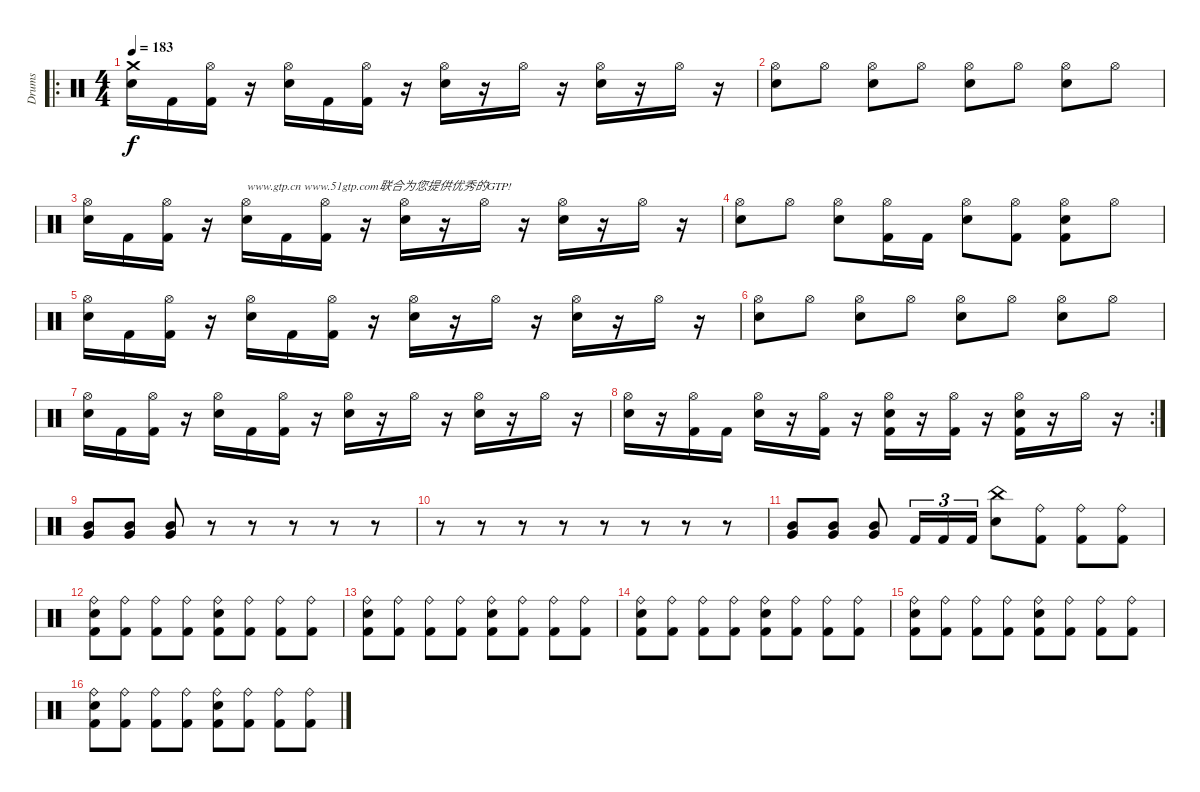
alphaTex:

\track ("Drums" "Drums") {instrument percussion}
\staff {score}
\articulation defaults
\ro
\ts (4 4)
\tempo 183
\clef neutral
\ks c
("Electric Snare (hit)" "Crash medium (hit)").16{dy f} "Kick (hit) 2".16 ("Kick (hit) 2" "Hi-Hat (open)").16 r.16 ("Electric Snare (hit)" "Hi-Hat (open)").16 "Kick (hit) 2".16 ("Kick (hit) 2" "Hi-Hat (open)").16 r.16 ("Electric Snare (hit)" "Hi-Hat (open)").16 r.16 "Hi-Hat (open)".16 r.16 ("Electric Snare (hit)" "Hi-Hat (open)").16 r.16 "Hi-Hat (open)".16 r.16 |
("Electric Snare (hit)" "Hi-Hat (open)").8 "Hi-Hat (open)".8 ("Electric Snare (hit)" "Hi-Hat (open)").8 "Hi-Hat (open)".8 ("Electric Snare (hit)" "Hi-Hat (open)").8 "Hi-Hat (open)".8 ("Electric Snare (hit)" "Hi-Hat (open)").8 "Hi-Hat (open)".8 |
("Electric Snare (hit)" "Hi-Hat (open)").16 "Kick (hit) 2".16 ("Kick (hit) 2" "Hi-Hat (open)").16 r.16 ("Electric Snare (hit)" "Hi-Hat (open)").16{txt "www.gtp.cn www.51gtp.com联合为您提供优秀的GTP!"} "Kick (hit) 2".16 ("Kick (hit) 2" "Hi-Hat (open)").16 r.16 ("Electric Snare (hit)" "Hi-Hat (open)").16 r.16 "Hi-Hat (open)".16 r.16 ("Electric Snare (hit)" "Hi-Hat (open)").16 r.16 "Hi-Hat (open)".16 r.16 |
("Electric Snare (hit)" "Hi-Hat (open)").8 "Hi-Hat (open)".8 ("Electric Snare (hit)" "Hi-Hat (open)").8 ("Kick (hit) 2" "Hi-Hat (open)").16 "Kick (hit) 2".16 ("Electric Snare (hit)" "Hi-Hat (open)").8 ("Kick (hit) 2" "Hi-Hat (open)").8 ("Kick (hit) 2" "Electric Snare (hit)" "Hi-Hat (open)").8 "Hi-Hat (open)".8 |
("Electric Snare (hit)" "Hi-Hat (open)").16 "Kick (hit) 2".16 ("Kick (hit) 2" "Hi-Hat (open)").16 r.16 ("Electric Snare (hit)" "Hi-Hat (open)").16 "Kick (hit) 2".16 ("Kick (hit) 2" "Hi-Hat (open)").16 r.16 ("Electric Snare (hit)" "Hi-Hat (open)").16 r.16 "Hi-Hat (open)".16 r.16 ("Electric Snare (hit)" "Hi-Hat (open)").16 r.16 "Hi-Hat (open)".16 r.16 |
("Electric Snare (hit)" "Hi-Hat (open)").8 "Hi-Hat (open)".8 ("Electric Snare (hit)" "Hi-Hat (open)").8 "Hi-Hat (open)".8 ("Electric Snare (hit)" "Hi-Hat (open)").8 "Hi-Hat (open)".8 ("Electric Snare (hit)" "Hi-Hat (open)").8 "Hi-Hat (open)".8 |
("Electric Snare (hit)" "Hi-Hat (open)").16 "Kick (hit) 2".16 ("Kick (hit) 2" "Hi-Hat (open)").16 r.16 ("Electric Snare (hit)" "Hi-Hat (open)").16 "Kick (hit) 2".16 ("Kick (hit) 2" "Hi-Hat (open)").16 r.16 ("Electric Snare (hit)" "Hi-Hat (open)").16 r.16 "Hi-Hat (open)".16 r.16 ("Electric Snare (hit)" "Hi-Hat (open)").16 r.16 "Hi-Hat (open)".16 r.16 |
\rc 2
("Electric Snare (hit)" "Hi-Hat (open)").16 r.16 ("Kick (hit) 2" "Hi-Hat (open)").16 "Kick (hit) 2".16 ("Electric Snare (hit)" "Hi-Hat (open)").16 r.16 ("Kick (hit) 2" "Hi-Hat (open)").16 r.16 ("Kick (hit) 2" "Electric Snare (hit)" "Hi-Hat (open)").16 r.16 ("Kick (hit) 2" "Hi-Hat (open)").16 r.16 ("Kick (hit) 2" "Electric Snare (hit)" "Hi-Hat (open)").16 r.16 "Hi-Hat (open)".16 r.16 |
("Mid Tom (hit)" "Very Low Tom (hit)").8 ("Mid Tom (hit)" "Very Low Tom (hit)").8 ("Mid Tom (hit)" "Very Low Tom (hit)").8 r.8 r.8 r.8 r.8 r.8 |
r.8 r.8 r.8 r.8 r.8 r.8 r.8 r.8 |
("Mid Tom (hit)" "Very Low Tom (hit)").8 ("Mid Tom (hit)" "Very Low Tom (hit)").8 ("Mid Tom (hit)" "Very Low Tom (hit)").8 "Kick (hit) 2".16{tu (3 2)} "Kick (hit) 2".16{tu (3 2)} "Kick (hit) 2".16{tu (3 2)} ("Electric Snare (hit)" "China (hit)").8 ("Kick (hit) 2" "Ride (bell)").8 ("Kick (hit) 2" "Ride (bell)").8 ("Kick (hit) 2" "Ride (bell)").8 |
("Kick (hit) 2" "Electric Snare (hit)" "Ride (bell)").8 ("Kick (hit) 2" "Ride (bell)").8 ("Kick (hit) 2" "Ride (bell)").8 ("Kick (hit) 2" "Ride (bell)").8 ("Kick (hit) 2" "Electric Snare (hit)" "Ride (bell)").8 ("Kick (hit) 2" "Ride (bell)").8 ("Kick (hit) 2" "Ride (bell)").8 ("Kick (hit) 2" "Ride (bell)").8 |
("Kick (hit) 2" "Electric Snare (hit)" "Ride (bell)").8 ("Kick (hit) 2" "Ride (bell)").8 ("Kick (hit) 2" "Ride (bell)").8 ("Kick (hit) 2" "Ride (bell)").8 ("Kick (hit) 2" "Electric Snare (hit)" "Ride (bell)").8 ("Kick (hit) 2" "Ride (bell)").8 ("Kick (hit) 2" "Ride (bell)").8 ("Kick (hit) 2" "Ride (bell)").8 |
("Kick (hit) 2" "Electric Snare (hit)" "Ride (bell)").8 ("Kick (hit) 2" "Ride (bell)").8 ("Kick (hit) 2" "Ride (bell)").8 ("Kick (hit) 2" "Ride (bell)").8 ("Kick (hit) 2" "Electric Snare (hit)" "Ride (bell)").8 ("Kick (hit) 2" "Ride (bell)").8 ("Kick (hit) 2" "Ride (bell)").8 ("Kick (hit) 2" "Ride (bell)").8 |
("Kick (hit) 2" "Electric Snare (hit)" "Ride (bell)").8 ("Kick (hit) 2" "Ride (bell)").8 ("Kick (hit) 2" "Ride (bell)").8 ("Kick (hit) 2" "Ride (bell)").8 ("Kick (hit) 2" "Electric Snare (hit)" "Ride (bell)").8 ("Kick (hit) 2" "Ride (bell)").8 ("Kick (hit) 2" "Ride (bell)").8 ("Kick (hit) 2" "Ride (bell)").8 |
("Kick (hit) 2" "Electric Snare (hit)" "Ride (bell)").8 ("Kick (hit) 2" "Ride (bell)").8 ("Kick (hit) 2" "Ride (bell)").8 ("Kick (hit) 2" "Ride (bell)").8 ("Kick (hit) 2" "Electric Snare (hit)" "Ride (bell)").8 ("Kick (hit) 2" "Ride (bell)").8 ("Kick (hit) 2" "Ride (bell)").8 ("Kick (hit) 2" "Ride (bell)").8
